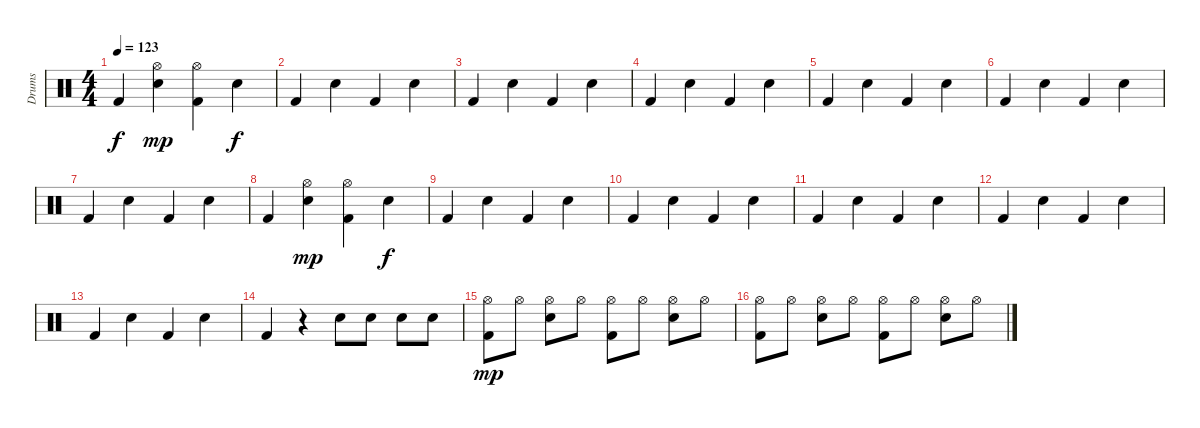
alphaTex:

\track ("Drums" "Drums") {instrument percussion}
\staff {score}
\articulation defaults
\ts (4 4)
\tempo 123
\clef neutral
\ks c "Kick (hit) 2".4{dy f}
("Hi-Hat (open)" "Electric Snare (hit)").4{dy mp} ("Hi-Hat (open)" "Kick (hit) 2").4 "Electric Snare (hit)".4{dy f} |
"Kick (hit) 2".4 "Electric Snare (hit)".4 "Kick (hit) 2".4 "Electric Snare (hit)".4 |
"Kick (hit) 2".4 "Electric Snare (hit)".4 "Kick (hit) 2".4 "Electric Snare (hit)".4 |
"Kick (hit) 2".4 "Electric Snare (hit)".4 "Kick (hit) 2".4 "Electric Snare (hit)".4 |
"Kick (hit) 2".4 "Electric Snare (hit)".4 "Kick (hit) 2".4 "Electric Snare (hit)".4 |
"Kick (hit) 2".4 "Electric Snare (hit)".4 "Kick (hit) 2".4 "Electric Snare (hit)".4 |
"Kick (hit) 2".4 "Electric Snare (hit)".4 "Kick (hit) 2".4 "Electric Snare (hit)".4 |
"Kick (hit) 2".4 ("Hi-Hat (open)" "Electric Snare (hit)").4{dy mp} ("Hi-Hat (open)" "Kick (hit) 2").4 "Electric Snare (hit)".4{dy f} |
"Kick (hit) 2".4 "Electric Snare (hit)".4 "Kick (hit) 2".4 "Electric Snare (hit)".4 |
"Kick (hit) 2".4 "Electric Snare (hit)".4 "Kick (hit) 2".4 "Electric Snare (hit)".4 |
"Kick (hit) 2".4 "Electric Snare (hit)".4 "Kick (hit) 2".4 "Electric Snare (hit)".4 |
"Kick (hit) 2".4 "Electric Snare (hit)".4 "Kick (hit) 2".4 "Electric Snare (hit)".4 |
"Kick (hit) 2".4 "Electric Snare (hit)".4 "Kick (hit) 2".4 "Electric Snare (hit)".4 |
"Kick (hit) 2".4 r.4 "Electric Snare (hit)".8 "Electric Snare (hit)".8 "Electric Snare (hit)".8 "Electric Snare (hit)".8 |
("Hi-Hat (open)" "Kick (hit) 2").8{dy mp} "Hi-Hat (open)".8 ("Hi-Hat (open)" "Electric Snare (hit)").8 "Hi-Hat (open)".8 ("Hi-Hat (open)" "Kick (hit) 2").8 "Hi-Hat (open)".8 ("Hi-Hat (open)" "Electric Snare (hit)").8 "Hi-Hat (open)".8 |
("Hi-Hat (open)" "Kick (hit) 2").8 "Hi-Hat (open)".8 ("Hi-Hat (open)" "Electric Snare (hit)").8 "Hi-Hat (open)".8 ("Hi-Hat (open)" "Kick (hit) 2").8 "Hi-Hat (open)".8 ("Hi-Hat (open)" "Electric Snare (hit)").8 "Hi-Hat (open)".8
